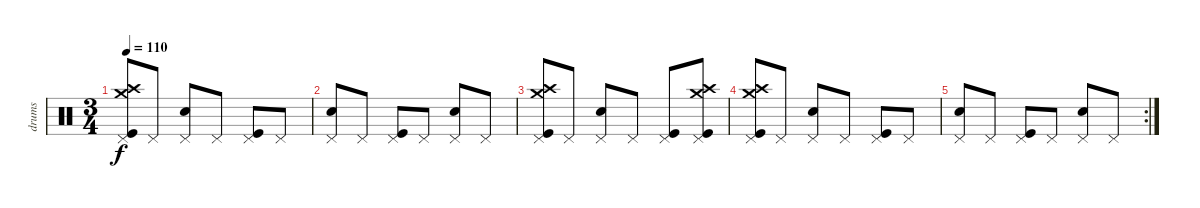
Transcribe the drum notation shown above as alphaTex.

\track ("drums" "drums") {instrument percussion}
\staff {score}
\articulation defaults
\ts (3 4)
\tempo 110
\clef neutral
\ks c
("Pedal Hi-Hat (hit)" "Crash medium (hit)" "Crash high (hit)" "Kick (hit)").8{dy f} "Pedal Hi-Hat (hit)".8 ("Pedal Hi-Hat (hit)" "Snare (hit) 2").8 "Pedal Hi-Hat (hit)".8 ("Pedal Hi-Hat (hit)" "Kick (hit)").8 "Pedal Hi-Hat (hit)".8 |
("Pedal Hi-Hat (hit)" "Snare (hit) 2").8 "Pedal Hi-Hat (hit)".8 ("Pedal Hi-Hat (hit)" "Kick (hit)").8 "Pedal Hi-Hat (hit)".8 ("Pedal Hi-Hat (hit)" "Snare (hit) 2").8 "Pedal Hi-Hat (hit)".8 |
("Pedal Hi-Hat (hit)" "Crash medium (hit)" "Crash high (hit)" "Kick (hit)").8 "Pedal Hi-Hat (hit)".8 ("Pedal Hi-Hat (hit)" "Snare (hit) 2").8 "Pedal Hi-Hat (hit)".8 ("Pedal Hi-Hat (hit)" "Kick (hit)").8 ("Pedal Hi-Hat (hit)" "Crash medium (hit)" "Crash high (hit)" "Kick (hit)").8 |
("Pedal Hi-Hat (hit)" "Crash medium (hit)" "Crash high (hit)" "Kick (hit)").8 "Pedal Hi-Hat (hit)".8 ("Pedal Hi-Hat (hit)" "Snare (hit) 2").8 "Pedal Hi-Hat (hit)".8 ("Pedal Hi-Hat (hit)" "Kick (hit)").8 "Pedal Hi-Hat (hit)".8 |
\rc 2
("Pedal Hi-Hat (hit)" "Snare (hit) 2").8 "Pedal Hi-Hat (hit)".8 ("Pedal Hi-Hat (hit)" "Kick (hit)").8 "Pedal Hi-Hat (hit)".8 ("Pedal Hi-Hat (hit)" "Snare (hit) 2").8 "Pedal Hi-Hat (hit)".8
